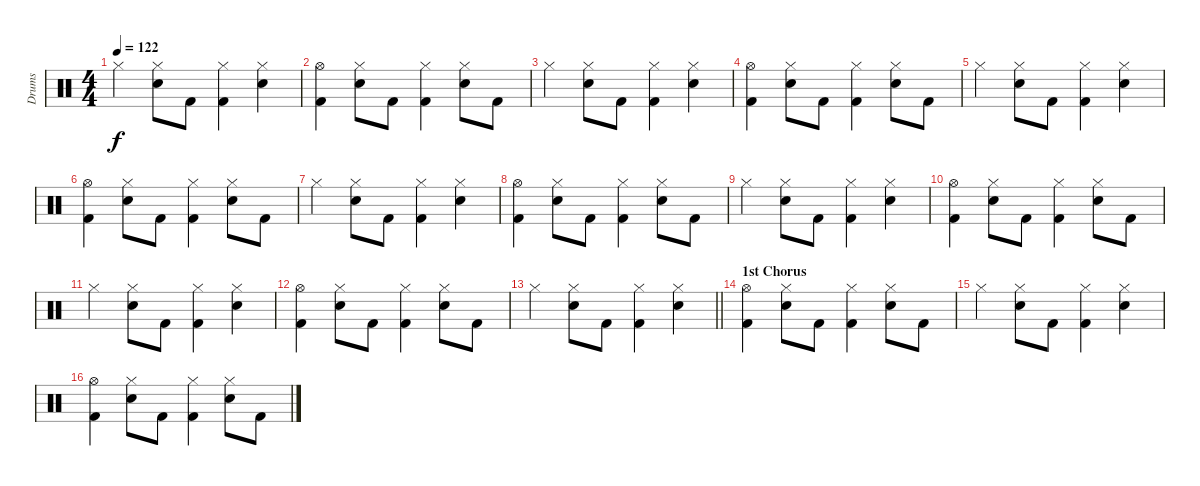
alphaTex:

\track ("Drums" "Drums") {instrument percussion}
\staff {score}
\articulation defaults
\ts (4 4)
\tempo 122
\clef neutral
\ks c "Hi-Hat (closed)".4{dy f}
("Hi-Hat (closed)" "Snare (hit) 2").8 "Kick (hit) 2".8 ("Hi-Hat (closed)" "Kick (hit) 2").4 ("Hi-Hat (closed)" "Snare (hit) 2").4 |
("Hi-Hat (open)" "Kick (hit) 2").4 ("Hi-Hat (closed)" "Snare (hit) 2").8 "Kick (hit) 2".8 ("Hi-Hat (closed)" "Kick (hit) 2").4 ("Hi-Hat (closed)" "Snare (hit) 2").8 "Kick (hit) 2".8 |
"Hi-Hat (closed)".4 ("Hi-Hat (closed)" "Snare (hit) 2").8 "Kick (hit) 2".8 ("Hi-Hat (closed)" "Kick (hit) 2").4 ("Hi-Hat (closed)" "Snare (hit) 2").4 |
("Hi-Hat (open)" "Kick (hit) 2").4 ("Hi-Hat (closed)" "Snare (hit) 2").8 "Kick (hit) 2".8 ("Hi-Hat (closed)" "Kick (hit) 2").4 ("Hi-Hat (closed)" "Snare (hit) 2").8 "Kick (hit) 2".8 |
"Hi-Hat (closed)".4 ("Hi-Hat (closed)" "Snare (hit) 2").8 "Kick (hit) 2".8 ("Hi-Hat (closed)" "Kick (hit) 2").4 ("Hi-Hat (closed)" "Snare (hit) 2").4 |
("Hi-Hat (open)" "Kick (hit) 2").4 ("Hi-Hat (closed)" "Snare (hit) 2").8 "Kick (hit) 2".8 ("Hi-Hat (closed)" "Kick (hit) 2").4 ("Hi-Hat (closed)" "Snare (hit) 2").8 "Kick (hit) 2".8 |
"Hi-Hat (closed)".4 ("Hi-Hat (closed)" "Snare (hit) 2").8 "Kick (hit) 2".8 ("Hi-Hat (closed)" "Kick (hit) 2").4 ("Hi-Hat (closed)" "Snare (hit) 2").4 |
("Hi-Hat (open)" "Kick (hit) 2").4 ("Hi-Hat (closed)" "Snare (hit) 2").8 "Kick (hit) 2".8 ("Hi-Hat (closed)" "Kick (hit) 2").4 ("Hi-Hat (closed)" "Snare (hit) 2").8 "Kick (hit) 2".8 |
"Hi-Hat (closed)".4 ("Hi-Hat (closed)" "Snare (hit) 2").8 "Kick (hit) 2".8 ("Hi-Hat (closed)" "Kick (hit) 2").4 ("Hi-Hat (closed)" "Snare (hit) 2").4 |
("Hi-Hat (open)" "Kick (hit) 2").4 ("Hi-Hat (closed)" "Snare (hit) 2").8 "Kick (hit) 2".8 ("Hi-Hat (closed)" "Kick (hit) 2").4 ("Hi-Hat (closed)" "Snare (hit) 2").8 "Kick (hit) 2".8 |
"Hi-Hat (closed)".4 ("Hi-Hat (closed)" "Snare (hit) 2").8 "Kick (hit) 2".8 ("Hi-Hat (closed)" "Kick (hit) 2").4 ("Hi-Hat (closed)" "Snare (hit) 2").4 |
("Hi-Hat (open)" "Kick (hit) 2").4 ("Hi-Hat (closed)" "Snare (hit) 2").8 "Kick (hit) 2".8 ("Hi-Hat (closed)" "Kick (hit) 2").4 ("Hi-Hat (closed)" "Snare (hit) 2").8 "Kick (hit) 2".8 |
\barLineRight lightlight "Hi-Hat (closed)".4
("Hi-Hat (closed)" "Snare (hit) 2").8 "Kick (hit) 2".8 ("Hi-Hat (closed)" "Kick (hit) 2").4 ("Hi-Hat (closed)" "Snare (hit) 2").4 |
\section ("" "1st Chorus")
("Hi-Hat (open)" "Kick (hit) 2").4 ("Hi-Hat (closed)" "Snare (hit) 2").8 "Kick (hit) 2".8 ("Hi-Hat (closed)" "Kick (hit) 2").4 ("Hi-Hat (closed)" "Snare (hit) 2").8 "Kick (hit) 2".8 |
"Hi-Hat (closed)".4 ("Hi-Hat (closed)" "Snare (hit) 2").8 "Kick (hit) 2".8 ("Hi-Hat (closed)" "Kick (hit) 2").4 ("Hi-Hat (closed)" "Snare (hit) 2").4 |
("Hi-Hat (open)" "Kick (hit) 2").4 ("Hi-Hat (closed)" "Snare (hit) 2").8 "Kick (hit) 2".8 ("Hi-Hat (closed)" "Kick (hit) 2").4 ("Hi-Hat (closed)" "Snare (hit) 2").8 "Kick (hit) 2".8
